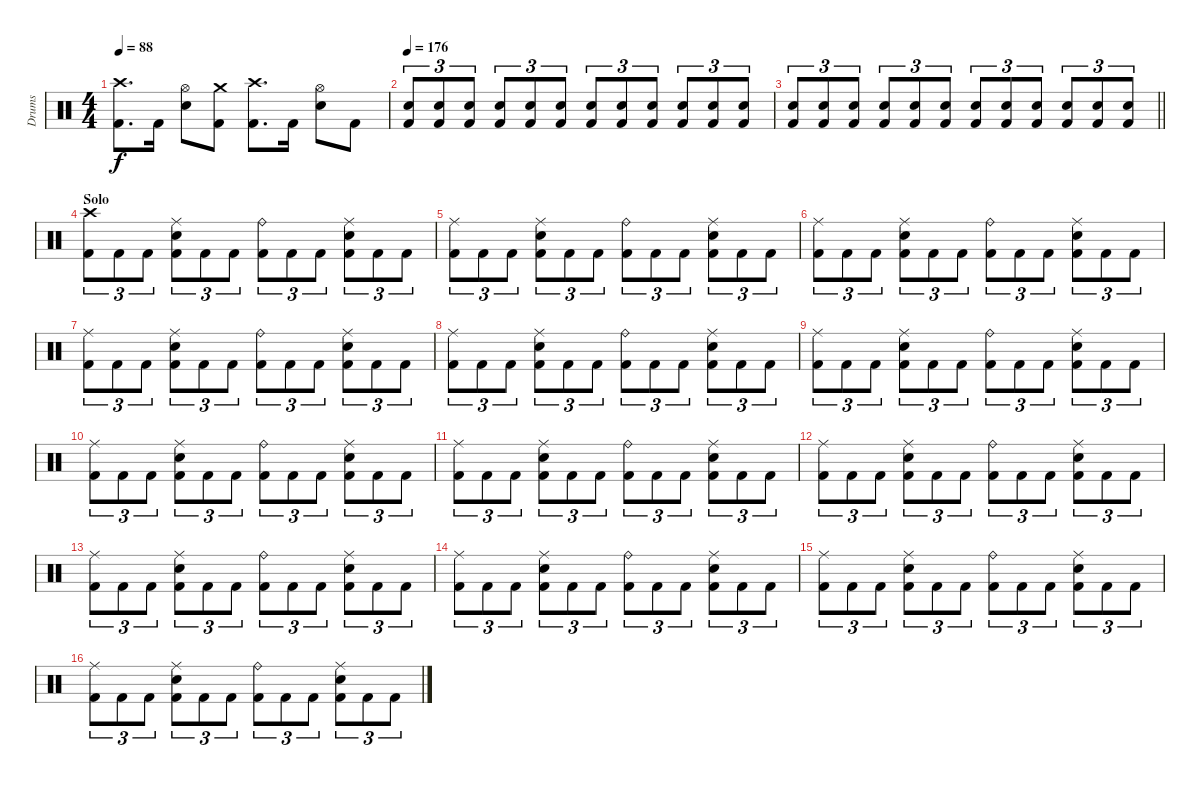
\track ("Drums" "Drums") {instrument percussion}
\staff {score}
\articulation defaults
\ts (4 4)
\tempo 88
\clef neutral
\ks c
("Crash high (hit)" "Kick (hit) 2").8{d dy f} "Kick (hit) 2".16 ("Hi-Hat (open)" "Snare (hit) 2").8 ("Crash medium (hit)" "Kick (hit) 2").8 ("Crash high (hit)" "Kick (hit) 2").8{d} "Kick (hit) 2".16 ("Hi-Hat (open)" "Snare (hit) 2").8 "Kick (hit) 2".8 |
\tempo 176
("Snare (hit) 2" "Kick (hit) 2").8{tu (3 2)} ("Snare (hit) 2" "Kick (hit) 2").8{tu (3 2)} ("Snare (hit) 2" "Kick (hit) 2").8{tu (3 2)} ("Electric Snare (hit)" "Kick (hit) 2").8{tu (3 2)} ("Electric Snare (hit)" "Kick (hit) 2").8{tu (3 2)} ("Electric Snare (hit)" "Kick (hit) 2").8{tu (3 2)} ("Snare (hit) 2" "Kick (hit) 2").8{tu (3 2)} ("Snare (hit) 2" "Kick (hit) 2").8{tu (3 2)} ("Snare (hit) 2" "Kick (hit) 2").8{tu (3 2)} ("Electric Snare (hit)" "Kick (hit) 2").8{tu (3 2)} ("Electric Snare (hit)" "Kick (hit) 2").8{tu (3 2)} ("Electric Snare (hit)" "Kick (hit) 2").8{tu (3 2)} |
\barLineRight lightlight
("Snare (hit) 2" "Kick (hit) 2").8{tu (3 2)} ("Snare (hit) 2" "Kick (hit) 2").8{tu (3 2)} ("Snare (hit) 2" "Kick (hit) 2").8{tu (3 2)} ("Electric Snare (hit)" "Kick (hit) 2").8{tu (3 2)} ("Electric Snare (hit)" "Kick (hit) 2").8{tu (3 2)} ("Electric Snare (hit)" "Kick (hit) 2").8{tu (3 2)} ("Snare (hit) 2" "Kick (hit) 2").8{tu (3 2)} ("Snare (hit) 2" "Kick (hit) 2").8{tu (3 2)} ("Snare (hit) 2" "Kick (hit) 2").8{tu (3 2)} ("Electric Snare (hit)" "Kick (hit) 2").8{tu (3 2)} ("Electric Snare (hit)" "Kick (hit) 2").8{tu (3 2)} ("Electric Snare (hit)" "Kick (hit) 2").8{tu (3 2)} |
\section ("" "Solo")
("Crash high (hit)" "Kick (hit) 2").8{tu (3 2)} "Kick (hit) 2".8{tu (3 2)} "Kick (hit) 2".8{tu (3 2)} ("Ride (middle)" "Snare (hit) 2" "Kick (hit) 2").8{tu (3 2)} "Kick (hit) 2".8{tu (3 2)} "Kick (hit) 2".8{tu (3 2)} ("Ride (bell)" "Kick (hit) 2").8{tu (3 2)} "Kick (hit) 2".8{tu (3 2)} "Kick (hit) 2".8{tu (3 2)} ("Ride (middle)" "Snare (hit) 2" "Kick (hit) 2").8{tu (3 2)} "Kick (hit) 2".8{tu (3 2)} "Kick (hit) 2".8{tu (3 2)} |
("Ride (middle)" "Kick (hit) 2").8{tu (3 2)} "Kick (hit) 2".8{tu (3 2)} "Kick (hit) 2".8{tu (3 2)} ("Ride (middle)" "Snare (hit) 2" "Kick (hit) 2").8{tu (3 2)} "Kick (hit) 2".8{tu (3 2)} "Kick (hit) 2".8{tu (3 2)} ("Ride (bell)" "Kick (hit) 2").8{tu (3 2)} "Kick (hit) 2".8{tu (3 2)} "Kick (hit) 2".8{tu (3 2)} ("Ride (middle)" "Snare (hit) 2" "Kick (hit) 2").8{tu (3 2)} "Kick (hit) 2".8{tu (3 2)} "Kick (hit) 2".8{tu (3 2)} |
("Ride (middle)" "Kick (hit) 2").8{tu (3 2)} "Kick (hit) 2".8{tu (3 2)} "Kick (hit) 2".8{tu (3 2)} ("Ride (middle)" "Snare (hit) 2" "Kick (hit) 2").8{tu (3 2)} "Kick (hit) 2".8{tu (3 2)} "Kick (hit) 2".8{tu (3 2)} ("Ride (bell)" "Kick (hit) 2").8{tu (3 2)} "Kick (hit) 2".8{tu (3 2)} "Kick (hit) 2".8{tu (3 2)} ("Ride (middle)" "Snare (hit) 2" "Kick (hit) 2").8{tu (3 2)} "Kick (hit) 2".8{tu (3 2)} "Kick (hit) 2".8{tu (3 2)} |
("Ride (middle)" "Kick (hit) 2").8{tu (3 2)} "Kick (hit) 2".8{tu (3 2)} "Kick (hit) 2".8{tu (3 2)} ("Ride (middle)" "Snare (hit) 2" "Kick (hit) 2").8{tu (3 2)} "Kick (hit) 2".8{tu (3 2)} "Kick (hit) 2".8{tu (3 2)} ("Ride (bell)" "Kick (hit) 2").8{tu (3 2)} "Kick (hit) 2".8{tu (3 2)} "Kick (hit) 2".8{tu (3 2)} ("Ride (middle)" "Snare (hit) 2" "Kick (hit) 2").8{tu (3 2)} "Kick (hit) 2".8{tu (3 2)} "Kick (hit) 2".8{tu (3 2)} |
("Ride (middle)" "Kick (hit) 2").8{tu (3 2)} "Kick (hit) 2".8{tu (3 2)} "Kick (hit) 2".8{tu (3 2)} ("Ride (middle)" "Snare (hit) 2" "Kick (hit) 2").8{tu (3 2)} "Kick (hit) 2".8{tu (3 2)} "Kick (hit) 2".8{tu (3 2)} ("Ride (bell)" "Kick (hit) 2").8{tu (3 2)} "Kick (hit) 2".8{tu (3 2)} "Kick (hit) 2".8{tu (3 2)} ("Ride (middle)" "Snare (hit) 2" "Kick (hit) 2").8{tu (3 2)} "Kick (hit) 2".8{tu (3 2)} "Kick (hit) 2".8{tu (3 2)} |
("Ride (middle)" "Kick (hit) 2").8{tu (3 2)} "Kick (hit) 2".8{tu (3 2)} "Kick (hit) 2".8{tu (3 2)} ("Ride (middle)" "Snare (hit) 2" "Kick (hit) 2").8{tu (3 2)} "Kick (hit) 2".8{tu (3 2)} "Kick (hit) 2".8{tu (3 2)} ("Ride (bell)" "Kick (hit) 2").8{tu (3 2)} "Kick (hit) 2".8{tu (3 2)} "Kick (hit) 2".8{tu (3 2)} ("Ride (middle)" "Snare (hit) 2" "Kick (hit) 2").8{tu (3 2)} "Kick (hit) 2".8{tu (3 2)} "Kick (hit) 2".8{tu (3 2)} |
("Ride (middle)" "Kick (hit) 2").8{tu (3 2)} "Kick (hit) 2".8{tu (3 2)} "Kick (hit) 2".8{tu (3 2)} ("Ride (middle)" "Snare (hit) 2" "Kick (hit) 2").8{tu (3 2)} "Kick (hit) 2".8{tu (3 2)} "Kick (hit) 2".8{tu (3 2)} ("Ride (bell)" "Kick (hit) 2").8{tu (3 2)} "Kick (hit) 2".8{tu (3 2)} "Kick (hit) 2".8{tu (3 2)} ("Ride (middle)" "Snare (hit) 2" "Kick (hit) 2").8{tu (3 2)} "Kick (hit) 2".8{tu (3 2)} "Kick (hit) 2".8{tu (3 2)} |
("Ride (middle)" "Kick (hit) 2").8{tu (3 2)} "Kick (hit) 2".8{tu (3 2)} "Kick (hit) 2".8{tu (3 2)} ("Ride (middle)" "Snare (hit) 2" "Kick (hit) 2").8{tu (3 2)} "Kick (hit) 2".8{tu (3 2)} "Kick (hit) 2".8{tu (3 2)} ("Ride (bell)" "Kick (hit) 2").8{tu (3 2)} "Kick (hit) 2".8{tu (3 2)} "Kick (hit) 2".8{tu (3 2)} ("Ride (middle)" "Snare (hit) 2" "Kick (hit) 2").8{tu (3 2)} "Kick (hit) 2".8{tu (3 2)} "Kick (hit) 2".8{tu (3 2)} |
("Ride (middle)" "Kick (hit) 2").8{tu (3 2)} "Kick (hit) 2".8{tu (3 2)} "Kick (hit) 2".8{tu (3 2)} ("Ride (middle)" "Snare (hit) 2" "Kick (hit) 2").8{tu (3 2)} "Kick (hit) 2".8{tu (3 2)} "Kick (hit) 2".8{tu (3 2)} ("Ride (bell)" "Kick (hit) 2").8{tu (3 2)} "Kick (hit) 2".8{tu (3 2)} "Kick (hit) 2".8{tu (3 2)} ("Ride (middle)" "Snare (hit) 2" "Kick (hit) 2").8{tu (3 2)} "Kick (hit) 2".8{tu (3 2)} "Kick (hit) 2".8{tu (3 2)} |
("Ride (middle)" "Kick (hit) 2").8{tu (3 2)} "Kick (hit) 2".8{tu (3 2)} "Kick (hit) 2".8{tu (3 2)} ("Ride (middle)" "Snare (hit) 2" "Kick (hit) 2").8{tu (3 2)} "Kick (hit) 2".8{tu (3 2)} "Kick (hit) 2".8{tu (3 2)} ("Ride (bell)" "Kick (hit) 2").8{tu (3 2)} "Kick (hit) 2".8{tu (3 2)} "Kick (hit) 2".8{tu (3 2)} ("Ride (middle)" "Snare (hit) 2" "Kick (hit) 2").8{tu (3 2)} "Kick (hit) 2".8{tu (3 2)} "Kick (hit) 2".8{tu (3 2)} |
("Ride (middle)" "Kick (hit) 2").8{tu (3 2)} "Kick (hit) 2".8{tu (3 2)} "Kick (hit) 2".8{tu (3 2)} ("Ride (middle)" "Snare (hit) 2" "Kick (hit) 2").8{tu (3 2)} "Kick (hit) 2".8{tu (3 2)} "Kick (hit) 2".8{tu (3 2)} ("Ride (bell)" "Kick (hit) 2").8{tu (3 2)} "Kick (hit) 2".8{tu (3 2)} "Kick (hit) 2".8{tu (3 2)} ("Ride (middle)" "Snare (hit) 2" "Kick (hit) 2").8{tu (3 2)} "Kick (hit) 2".8{tu (3 2)} "Kick (hit) 2".8{tu (3 2)} |
("Ride (middle)" "Kick (hit) 2").8{tu (3 2)} "Kick (hit) 2".8{tu (3 2)} "Kick (hit) 2".8{tu (3 2)} ("Ride (middle)" "Snare (hit) 2" "Kick (hit) 2").8{tu (3 2)} "Kick (hit) 2".8{tu (3 2)} "Kick (hit) 2".8{tu (3 2)} ("Ride (bell)" "Kick (hit) 2").8{tu (3 2)} "Kick (hit) 2".8{tu (3 2)} "Kick (hit) 2".8{tu (3 2)} ("Ride (middle)" "Snare (hit) 2" "Kick (hit) 2").8{tu (3 2)} "Kick (hit) 2".8{tu (3 2)} "Kick (hit) 2".8{tu (3 2)} |
("Ride (middle)" "Kick (hit) 2").8{tu (3 2)} "Kick (hit) 2".8{tu (3 2)} "Kick (hit) 2".8{tu (3 2)} ("Ride (middle)" "Snare (hit) 2" "Kick (hit) 2").8{tu (3 2)} "Kick (hit) 2".8{tu (3 2)} "Kick (hit) 2".8{tu (3 2)} ("Ride (bell)" "Kick (hit) 2").8{tu (3 2)} "Kick (hit) 2".8{tu (3 2)} "Kick (hit) 2".8{tu (3 2)} ("Ride (middle)" "Snare (hit) 2" "Kick (hit) 2").8{tu (3 2)} "Kick (hit) 2".8{tu (3 2)} "Kick (hit) 2".8{tu (3 2)}
